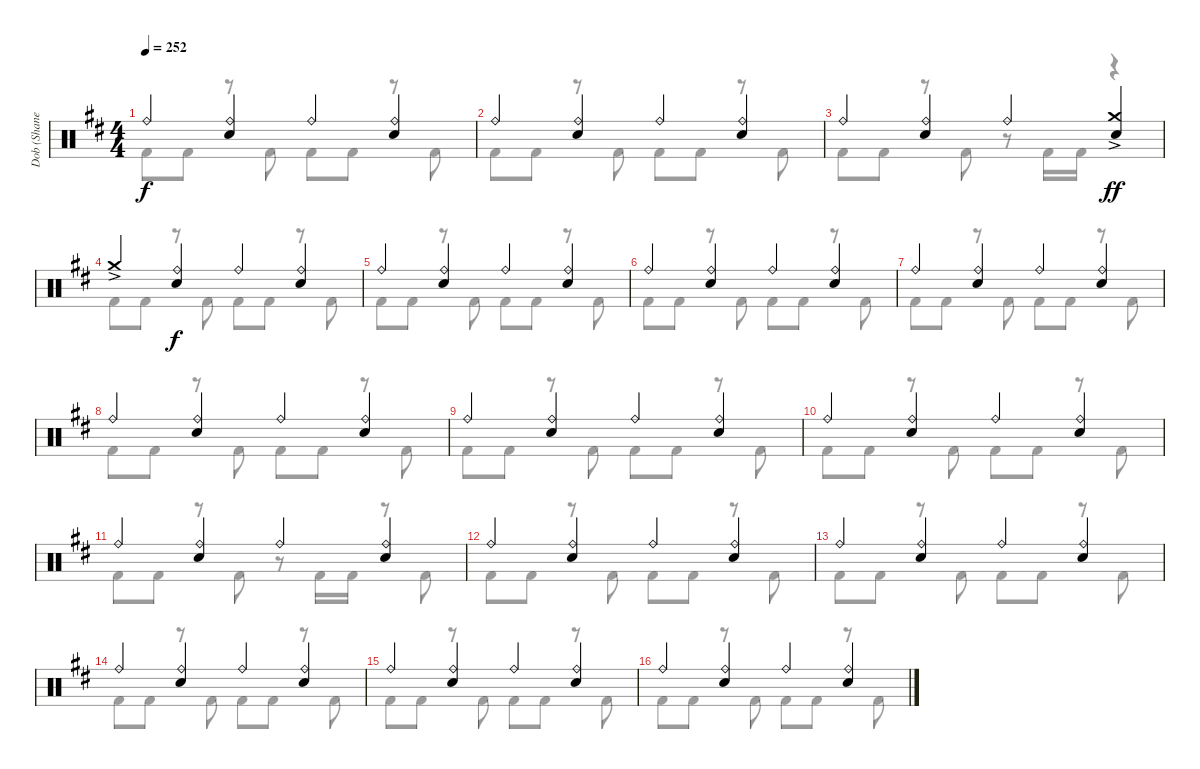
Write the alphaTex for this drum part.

\track ("Dob (Shane Gaalaas)" "Dob (Shane") {instrument percussion}
\staff {score}
\articulation defaults
\voice
\ts (4 4)
\tempo 252
\clef neutral
\ks d "Ride (bell)".4{dy f}
("Ride (bell)" "Electric Snare (hit)").4 "Ride (bell)".4 ("Ride (bell)" "Electric Snare (hit)").4 |
"Ride (bell)".4 ("Ride (bell)" "Electric Snare (hit)").4 "Ride (bell)".4 ("Ride (bell)" "Electric Snare (hit)").4 |
"Ride (bell)".4 ("Ride (bell)" "Electric Snare (hit)").4 "Ride (bell)".4 ("Crash medium (hit)"{ac} "Electric Snare (hit)").4{dy ff} |
"Crash medium (hit)"{ac}.4 ("Ride (bell)" "Electric Snare (hit)").4{dy f} "Ride (bell)".4 ("Ride (bell)" "Electric Snare (hit)").4 |
"Ride (bell)".4 ("Ride (bell)" "Electric Snare (hit)").4 "Ride (bell)".4 ("Ride (bell)" "Electric Snare (hit)").4 |
"Ride (bell)".4 ("Ride (bell)" "Electric Snare (hit)").4 "Ride (bell)".4 ("Ride (bell)" "Electric Snare (hit)").4 |
"Ride (bell)".4 ("Ride (bell)" "Electric Snare (hit)").4 "Ride (bell)".4 ("Ride (bell)" "Electric Snare (hit)").4 |
"Ride (bell)".4 ("Ride (bell)" "Electric Snare (hit)").4 "Ride (bell)".4 ("Ride (bell)" "Electric Snare (hit)").4 |
"Ride (bell)".4 ("Ride (bell)" "Electric Snare (hit)").4 "Ride (bell)".4 ("Ride (bell)" "Electric Snare (hit)").4 |
"Ride (bell)".4 ("Ride (bell)" "Electric Snare (hit)").4 "Ride (bell)".4 ("Ride (bell)" "Electric Snare (hit)").4 |
"Ride (bell)".4 ("Ride (bell)" "Electric Snare (hit)").4 "Ride (bell)".4 ("Ride (bell)" "Electric Snare (hit)").4 |
"Ride (bell)".4 ("Ride (bell)" "Electric Snare (hit)").4 "Ride (bell)".4 ("Ride (bell)" "Electric Snare (hit)").4 |
"Ride (bell)".4 ("Ride (bell)" "Electric Snare (hit)").4 "Ride (bell)".4 ("Ride (bell)" "Electric Snare (hit)").4 |
"Ride (bell)".4 ("Ride (bell)" "Electric Snare (hit)").4 "Ride (bell)".4 ("Ride (bell)" "Electric Snare (hit)").4 |
"Ride (bell)".4 ("Ride (bell)" "Electric Snare (hit)").4 "Ride (bell)".4 ("Ride (bell)" "Electric Snare (hit)").4 |
"Ride (bell)".4 ("Ride (bell)" "Electric Snare (hit)").4 "Ride (bell)".4 ("Ride (bell)" "Electric Snare (hit)").4
\voice
\clef neutral
\ottava regular
\simile none
\ks d "Kick (hit) 2".8{dy f} "Kick (hit) 2".8
r.8 "Kick (hit) 2".8 "Kick (hit) 2".8 "Kick (hit) 2".8 r.8 "Kick (hit) 2".8 |
"Kick (hit) 2".8 "Kick (hit) 2".8 r.8 "Kick (hit) 2".8 "Kick (hit) 2".8 "Kick (hit) 2".8 r.8 "Kick (hit) 2".8 |
"Kick (hit) 2".8 "Kick (hit) 2".8 r.8 "Kick (hit) 2".8 r.8 "Kick (hit) 2".16 "Kick (hit) 2".16 r.4 |
"Kick (hit) 2".8 "Kick (hit) 2".8 r.8 "Kick (hit) 2".8 "Kick (hit) 2".8 "Kick (hit) 2".8 r.8 "Kick (hit) 2".8 |
"Kick (hit) 2".8 "Kick (hit) 2".8 r.8 "Kick (hit) 2".8 "Kick (hit) 2".8 "Kick (hit) 2".8 r.8 "Kick (hit) 2".8 |
"Kick (hit) 2".8 "Kick (hit) 2".8 r.8 "Kick (hit) 2".8 "Kick (hit) 2".8 "Kick (hit) 2".8 r.8 "Kick (hit) 2".8 |
"Kick (hit) 2".8 "Kick (hit) 2".8 r.8 "Kick (hit) 2".8 "Kick (hit) 2".8 "Kick (hit) 2".8 r.8 "Kick (hit) 2".8 |
"Kick (hit) 2".8 "Kick (hit) 2".8 r.8 "Kick (hit) 2".8 "Kick (hit) 2".8 "Kick (hit) 2".8 r.8 "Kick (hit) 2".8 |
"Kick (hit) 2".8 "Kick (hit) 2".8 r.8 "Kick (hit) 2".8 "Kick (hit) 2".8 "Kick (hit) 2".8 r.8 "Kick (hit) 2".8 |
"Kick (hit) 2".8 "Kick (hit) 2".8 r.8 "Kick (hit) 2".8 "Kick (hit) 2".8 "Kick (hit) 2".8 r.8 "Kick (hit) 2".8 |
"Kick (hit) 2".8 "Kick (hit) 2".8 r.8 "Kick (hit) 2".8 r.8 "Kick (hit) 2".16 "Kick (hit) 2".16 r.8 "Kick (hit) 2".8 |
"Kick (hit) 2".8 "Kick (hit) 2".8 r.8 "Kick (hit) 2".8 "Kick (hit) 2".8 "Kick (hit) 2".8 r.8 "Kick (hit) 2".8 |
"Kick (hit) 2".8 "Kick (hit) 2".8 r.8 "Kick (hit) 2".8 "Kick (hit) 2".8 "Kick (hit) 2".8 r.8 "Kick (hit) 2".8 |
"Kick (hit) 2".8 "Kick (hit) 2".8 r.8 "Kick (hit) 2".8 "Kick (hit) 2".8 "Kick (hit) 2".8 r.8 "Kick (hit) 2".8 |
"Kick (hit) 2".8 "Kick (hit) 2".8 r.8 "Kick (hit) 2".8 "Kick (hit) 2".8 "Kick (hit) 2".8 r.8 "Kick (hit) 2".8 |
"Kick (hit) 2".8 "Kick (hit) 2".8 r.8 "Kick (hit) 2".8 "Kick (hit) 2".8 "Kick (hit) 2".8 r.8 "Kick (hit) 2".8
